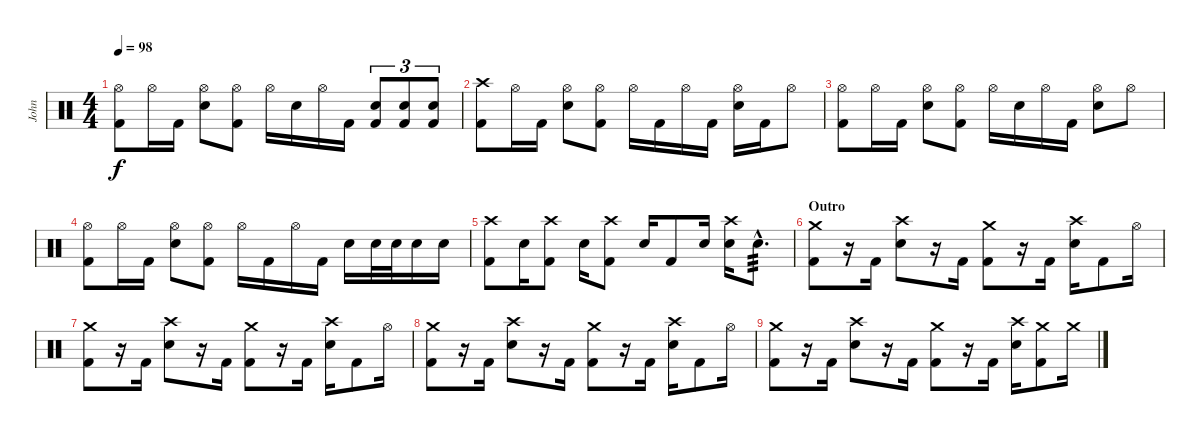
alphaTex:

\track ("John" "John") {instrument percussion}
\staff {score}
\articulation defaults
\ts (4 4)
\tempo 98
\clef neutral
\ks c
("Hi-Hat (open)" "Kick (hit) 2").8{dy f} "Hi-Hat (open)".16 "Kick (hit) 2".16 ("Hi-Hat (open)" "Snare (hit) 2").8 ("Hi-Hat (open)" "Kick (hit) 2").8 "Hi-Hat (open)".16 "Snare (hit) 2".16 "Hi-Hat (open)".16 "Kick (hit) 2".16 ("Snare (hit) 2" "Kick (hit) 2").8{tu (3 2)} ("Snare (hit) 2" "Kick (hit) 2").8{tu (3 2)} ("Snare (hit) 2" "Kick (hit) 2").8{tu (3 2)} |
("Crash high (hit)" "Kick (hit) 2").8 "Hi-Hat (open)".16 "Kick (hit) 2".16 ("Hi-Hat (open)" "Snare (hit) 2").8 ("Hi-Hat (open)" "Kick (hit) 2").8 "Hi-Hat (open)".16 "Kick (hit) 2".16 "Hi-Hat (open)".16 "Kick (hit) 2".16 ("Hi-Hat (open)" "Snare (hit) 2").16 "Kick (hit) 2".16 "Hi-Hat (open)".8 |
("Hi-Hat (open)" "Kick (hit) 2").8 "Hi-Hat (open)".16 "Kick (hit) 2".16 ("Hi-Hat (open)" "Snare (hit) 2").8 ("Hi-Hat (open)" "Kick (hit) 2").8 "Hi-Hat (open)".16 "Snare (hit) 2".16 "Hi-Hat (open)".16 "Kick (hit) 2".16 ("Hi-Hat (open)" "Snare (hit) 2").8 "Hi-Hat (open)".8 |
("Hi-Hat (open)" "Kick (hit) 2").8 "Hi-Hat (open)".16 "Kick (hit) 2".16 ("Hi-Hat (open)" "Snare (hit) 2").8 ("Hi-Hat (open)" "Kick (hit) 2").8 "Hi-Hat (open)".16 "Kick (hit) 2".16 "Hi-Hat (open)".16 "Kick (hit) 2".16 "Snare (hit) 2".16 "Snare (hit) 2".32 "Snare (hit) 2".32 "Snare (hit) 2".16 "Snare (hit) 2".16 |
("Crash high (hit)" "Kick (hit) 2").8 "Snare (hit) 2".16 ("Crash high (hit)" "Kick (hit) 2").8 "Snare (hit) 2".16 ("Crash high (hit)" "Kick (hit) 2").8 "Snare (hit) 2".16 "Kick (hit) 2".8 "Snare (hit) 2".16 ("Crash high (hit)" "Snare (hit) 2").16 "Snare (hit) 2"{hac}.8{d tp 3} |
\section ("" "Outro")
("Crash medium (hit)" "Kick (hit) 2").8 r.16 "Kick (hit) 2".16 ("Crash high (hit)" "Snare (hit) 2").8 r.16 "Kick (hit) 2".16 ("Crash medium (hit)" "Kick (hit) 2").8 r.16 "Kick (hit) 2".16 ("Crash high (hit)" "Snare (hit) 2").16 "Kick (hit) 2".8 "Hi-Hat (open)".16 |
("Crash medium (hit)" "Kick (hit) 2").8 r.16 "Kick (hit) 2".16 ("Crash high (hit)" "Snare (hit) 2").8 r.16 "Kick (hit) 2".16 ("Crash medium (hit)" "Kick (hit) 2").8 r.16 "Kick (hit) 2".16 ("Crash high (hit)" "Snare (hit) 2").16 "Kick (hit) 2".8 "Hi-Hat (open)".16 |
("Crash medium (hit)" "Kick (hit) 2").8 r.16 "Kick (hit) 2".16 ("Crash high (hit)" "Snare (hit) 2").8 r.16 "Kick (hit) 2".16 ("Crash medium (hit)" "Kick (hit) 2").8 r.16 "Kick (hit) 2".16 ("Crash high (hit)" "Snare (hit) 2").16 "Kick (hit) 2".8 "Hi-Hat (open)".16 |
("Crash medium (hit)" "Kick (hit) 2").8 r.16 "Kick (hit) 2".16 ("Crash high (hit)" "Snare (hit) 2").8 r.16 "Kick (hit) 2".16 ("Crash medium (hit)" "Kick (hit) 2").8 r.16 "Kick (hit) 2".16 ("Crash high (hit)" "Snare (hit) 2").16 ("Crash medium (hit)" "Kick (hit) 2").8 "Crash medium (hit)".16
